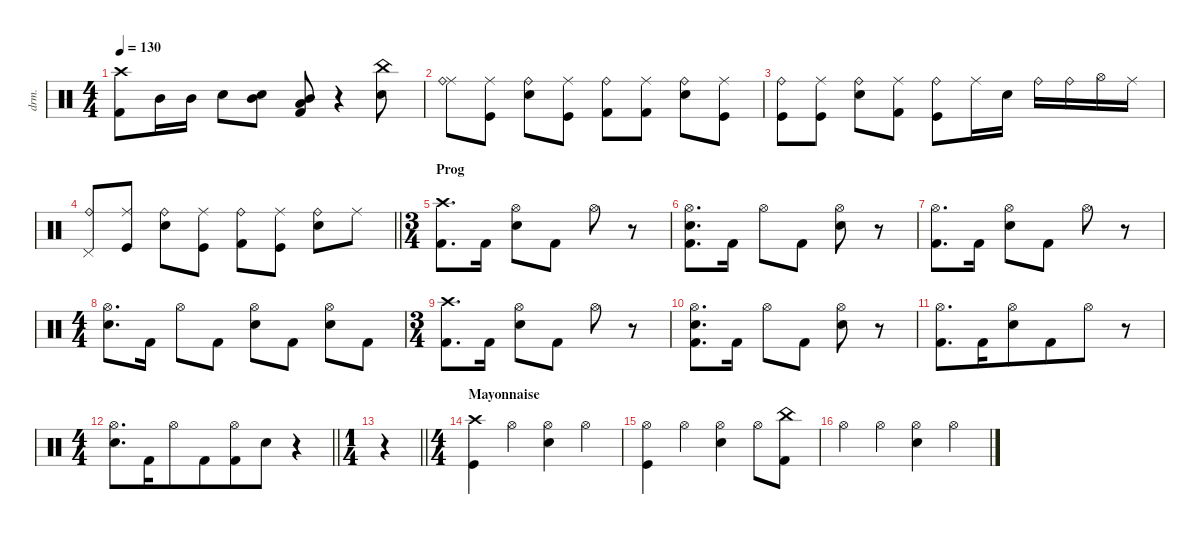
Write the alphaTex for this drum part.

\defaultSystemsLayout 4
\hideDynamics
\bracketExtendMode nobrackets
\otherSystemsTrackNameOrientation horizontal
\track ("Manouche" "drm.") {instrument percussion}
\staff {score}
\articulation defaults
\voice
\ts (4 4)
\tempo 130
\clef neutral
\ks c
("Crash high (hit)" "Kick (hit) 2").8{dy f} "Mid Tom (hit)".16 "Mid Tom (hit)".16 "Snare (hit) 2".8{dy ff} ("Mid Tom (hit)" "Snare (hit) 2").8{dy mf} ("Kick (hit) 2" "Mid Tom (hit)" "Low Floor Tom (hit)").8{dy ff} r.4 ("China (hit)" "Snare (hit) 2").8 |
("Ride (middle)" "Ride (bell)").8{dy f} ("Ride (middle)" "Kick (hit)").8{dy mp} ("Snare (hit) 2" "Ride (bell)").8{dy f} ("Kick (hit)" "Ride (middle)").8 ("Ride (bell)" "Kick (hit) 2").8 ("Ride (middle)" "Kick (hit) 2").8{dy mp} ("Ride (bell)" "Snare (hit) 2").8{dy f} ("Ride (middle)" "Kick (hit)").8{dy mp} |
("Kick (hit)" "Ride (bell)").8{dy f} ("Kick (hit)" "Ride (middle)").8 ("Ride (bell)" "Snare (hit) 2").8 ("Ride (middle)" "Kick (hit) 2").8{dy mp} ("Ride (bell)" "Kick (hit)").8{dy f} "Ride (middle)".16{dy mp} "Snare (hit) 2".16{dy f} "Ride (bell)".16 "Ride (bell)".16 "Hi-Hat (open)".16 "Ride (middle)".16 |
\barLineRight lightlight
("Ride (bell)" "Pedal Hi-Hat (hit)").8 ("Kick (hit)" "Ride (middle)").8 ("Snare (hit) 2" "Ride (bell)").8 ("Ride (middle)" "Kick (hit)").8{dy mp} ("Ride (bell)" "Kick (hit) 2").8{dy f} ("Ride (middle)" "Kick (hit)").8{dy mp} ("Snare (hit) 2" "Ride (bell)").8{dy f} "Ride (middle)".8{dy mp} |
\ts (3 4)
\beaming (8 2 2 2)
\section ("" "Prog")
("Crash high (hit)" "Kick (hit) 2").8{d dy f} "Kick (hit) 2".16 ("Hi-Hat (open)" "Snare (hit) 2").8 "Kick (hit) 2".8 "Hi-Hat (open)".8 r.8 |
("Hi-Hat (open)" "Snare (hit) 2" "Kick (hit) 2").8{d} "Kick (hit) 2".16 "Hi-Hat (open)".8 "Kick (hit) 2".8 ("Hi-Hat (open)" "Snare (hit) 2").8 r.8 |
("Hi-Hat (open)" "Kick (hit) 2").8{d} "Kick (hit) 2".16 ("Hi-Hat (open)" "Snare (hit) 2").8 "Kick (hit) 2".8 "Hi-Hat (open)".8 r.8 |
\ts (4 4)
\beaming (8 2 2 2 2)
("Hi-Hat (open)" "Snare (hit) 2").8{d} "Kick (hit) 2".16 "Hi-Hat (open)".8 "Kick (hit) 2".8 ("Hi-Hat (open)" "Snare (hit) 2").8 "Kick (hit) 2".8 ("Hi-Hat (open)" "Snare (hit) 2").8 "Kick (hit) 2".8 |
\ts (3 4)
\beaming (8 2 2 2)
("Crash high (hit)" "Kick (hit) 2").8{d} "Kick (hit) 2".16 ("Hi-Hat (open)" "Snare (hit) 2").8 "Kick (hit) 2".8 "Hi-Hat (open)".8 r.8 |
("Hi-Hat (open)" "Snare (hit) 2" "Kick (hit) 2").8{d} "Kick (hit) 2".16 "Hi-Hat (open)".8 "Kick (hit) 2".8 ("Hi-Hat (open)" "Snare (hit) 2").8 r.8 |
\beaming (8 6 4)
("Hi-Hat (open)" "Kick (hit) 2").8{d} "Kick (hit) 2".16 ("Hi-Hat (open)" "Snare (hit) 2").8 "Kick (hit) 2".8 "Hi-Hat (open)".8 r.8 |
\ts (4 4)
\beaming (8 6 4)
\barLineRight lightlight
("Hi-Hat (open)" "Snare (hit) 2").8{d} "Kick (hit) 2".16 "Hi-Hat (open)".8 "Kick (hit) 2".8 ("Hi-Hat (open)" "Kick (hit) 2").8 "Snare (hit) 2".8 r.4 |
\ts (1 4)
\beaming (8 2)
\barLineRight lightlight
r.4 |
\ts (4 4)
\beaming (8 2 2 2 2)
\section ("" "Mayonnaise")
("Crash high (hit)" "Kick (hit)").4 "Hi-Hat (open)".4 ("Hi-Hat (open)" "Snare (hit) 2").4 "Hi-Hat (open)".4 |
("Hi-Hat (open)" "Kick (hit)").4 "Hi-Hat (open)".4 ("Hi-Hat (open)" "Snare (hit) 2").4 "Hi-Hat (open)".8 ("China (hit)" "Kick (hit) 2").8 |
"Hi-Hat (open)".4 "Hi-Hat (open)".4 ("Hi-Hat (open)" "Snare (hit) 2").4 "Hi-Hat (open)".4
\voice
\clef neutral
\ottava regular
\simile none
\ks c
|
|
|
\barLineRight lightlight
|
|
|
|
|
|
|
|
\barLineRight lightlight
|
\barLineRight lightlight
r.4{dy mf} |
|
|
